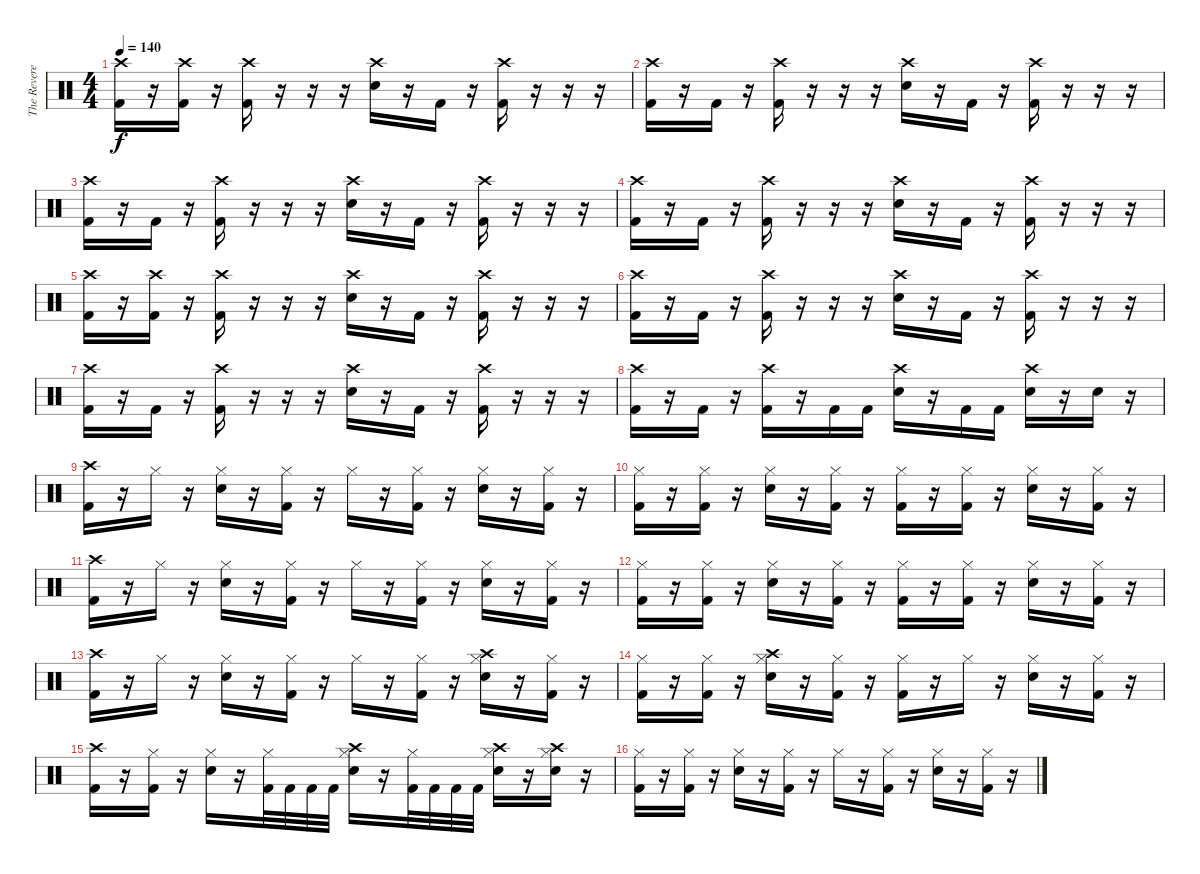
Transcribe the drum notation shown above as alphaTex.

\track ("The Reverend" "The Revere") {instrument percussion}
\staff {score}
\articulation defaults
\ts (4 4)
\tempo 140
\clef neutral
\ks c
("Crash high (hit)" "Kick (hit) 2").16{dy f} r.16 ("Crash high (hit)" "Kick (hit) 2").16 r.16 ("Crash high (hit)" "Kick (hit) 2").16 r.16 r.16 r.16 ("Crash high (hit)" "Electric Snare (hit)").16 r.16 "Kick (hit) 2".16 r.16 ("Crash high (hit)" "Kick (hit) 2").16 r.16 r.16 r.16 |
("Crash high (hit)" "Kick (hit) 2").16 r.16 "Kick (hit) 2".16 r.16 ("Crash high (hit)" "Kick (hit) 2").16 r.16 r.16 r.16 ("Crash high (hit)" "Electric Snare (hit)").16 r.16 "Kick (hit) 2".16 r.16 ("Crash high (hit)" "Kick (hit) 2").16 r.16 r.16 r.16 |
("Crash high (hit)" "Kick (hit) 2").16 r.16 "Kick (hit) 2".16 r.16 ("Crash high (hit)" "Kick (hit) 2").16 r.16 r.16 r.16 ("Crash high (hit)" "Electric Snare (hit)").16 r.16 "Kick (hit) 2".16 r.16 ("Crash high (hit)" "Kick (hit) 2").16 r.16 r.16 r.16 |
("Crash high (hit)" "Kick (hit) 2").16 r.16 "Kick (hit) 2".16 r.16 ("Crash high (hit)" "Kick (hit) 2").16 r.16 r.16 r.16 ("Crash high (hit)" "Electric Snare (hit)").16 r.16 "Kick (hit) 2".16 r.16 ("Crash high (hit)" "Kick (hit) 2").16 r.16 r.16 r.16 |
("Crash high (hit)" "Kick (hit) 2").16 r.16 ("Crash high (hit)" "Kick (hit) 2").16 r.16 ("Crash high (hit)" "Kick (hit) 2").16 r.16 r.16 r.16 ("Crash high (hit)" "Electric Snare (hit)").16 r.16 "Kick (hit) 2".16 r.16 ("Crash high (hit)" "Kick (hit) 2").16 r.16 r.16 r.16 |
("Crash high (hit)" "Kick (hit) 2").16 r.16 "Kick (hit) 2".16 r.16 ("Crash high (hit)" "Kick (hit) 2").16 r.16 r.16 r.16 ("Crash high (hit)" "Electric Snare (hit)").16 r.16 "Kick (hit) 2".16 r.16 ("Crash high (hit)" "Kick (hit) 2").16 r.16 r.16 r.16 |
("Crash high (hit)" "Kick (hit) 2").16 r.16 "Kick (hit) 2".16 r.16 ("Crash high (hit)" "Kick (hit) 2").16 r.16 r.16 r.16 ("Crash high (hit)" "Electric Snare (hit)").16 r.16 "Kick (hit) 2".16 r.16 ("Crash high (hit)" "Kick (hit) 2").16 r.16 r.16 r.16 |
("Crash high (hit)" "Kick (hit) 2").16 r.16 "Kick (hit) 2".16 r.16 ("Crash high (hit)" "Kick (hit) 2").16 r.16 "Kick (hit) 2".16 "Kick (hit) 2".16 ("Crash high (hit)" "Electric Snare (hit)").16 r.16 "Kick (hit) 2".16 "Kick (hit) 2".16 ("Crash high (hit)" "Electric Snare (hit)").16 r.16 "Electric Snare (hit)".16 r.16 |
("Crash high (hit)" "Kick (hit) 2").16 r.16 "Hi-Hat (closed)".16 r.16 ("Hi-Hat (closed)" "Electric Snare (hit)").16 r.16 ("Hi-Hat (closed)" "Kick (hit) 2").16 r.16 "Hi-Hat (closed)".16 r.16 ("Hi-Hat (closed)" "Kick (hit) 2").16 r.16 ("Hi-Hat (closed)" "Electric Snare (hit)").16 r.16 ("Hi-Hat (closed)" "Kick (hit) 2").16 r.16 |
("Hi-Hat (closed)" "Kick (hit) 2").16 r.16 ("Hi-Hat (closed)" "Kick (hit) 2").16 r.16 ("Hi-Hat (closed)" "Electric Snare (hit)").16 r.16 ("Hi-Hat (closed)" "Kick (hit) 2").16 r.16 ("Hi-Hat (closed)" "Kick (hit) 2").16 r.16 ("Hi-Hat (closed)" "Kick (hit) 2").16 r.16 ("Hi-Hat (closed)" "Electric Snare (hit)").16 r.16 ("Hi-Hat (closed)" "Kick (hit) 2").16 r.16 |
("Crash high (hit)" "Kick (hit) 2").16 r.16 "Hi-Hat (closed)".16 r.16 ("Hi-Hat (closed)" "Electric Snare (hit)").16 r.16 ("Hi-Hat (closed)" "Kick (hit) 2").16 r.16 "Hi-Hat (closed)".16 r.16 ("Hi-Hat (closed)" "Kick (hit) 2").16 r.16 ("Hi-Hat (closed)" "Electric Snare (hit)").16 r.16 ("Hi-Hat (closed)" "Kick (hit) 2").16 r.16 |
("Hi-Hat (closed)" "Kick (hit) 2").16 r.16 ("Hi-Hat (closed)" "Kick (hit) 2").16 r.16 ("Hi-Hat (closed)" "Electric Snare (hit)").16 r.16 ("Hi-Hat (closed)" "Kick (hit) 2").16 r.16 ("Hi-Hat (closed)" "Kick (hit) 2").16 r.16 ("Hi-Hat (closed)" "Kick (hit) 2").16 r.16 ("Hi-Hat (closed)" "Electric Snare (hit)").16 r.16 ("Hi-Hat (closed)" "Kick (hit) 2").16 r.16 |
("Crash high (hit)" "Kick (hit) 2").16 r.16 "Hi-Hat (closed)".16 r.16 ("Hi-Hat (closed)" "Electric Snare (hit)").16 r.16 ("Hi-Hat (closed)" "Kick (hit) 2").16 r.16 "Hi-Hat (closed)".16 r.16 ("Hi-Hat (closed)" "Kick (hit) 2").16 r.16 ("Crash high (hit)" "Hi-Hat (closed)" "Electric Snare (hit)").16 r.16 ("Hi-Hat (closed)" "Kick (hit) 2").16 r.16 |
("Hi-Hat (closed)" "Kick (hit) 2").16 r.16 ("Hi-Hat (closed)" "Kick (hit) 2").16 r.16 ("Crash high (hit)" "Hi-Hat (closed)" "Electric Snare (hit)").16 r.16 ("Hi-Hat (closed)" "Kick (hit) 2").16 r.16 ("Hi-Hat (closed)" "Kick (hit) 2").16 r.16 "Hi-Hat (closed)".16 r.16 ("Hi-Hat (closed)" "Electric Snare (hit)").16 r.16 ("Hi-Hat (closed)" "Kick (hit) 2").16 r.16 |
("Crash high (hit)" "Kick (hit) 2").16 r.16 ("Hi-Hat (closed)" "Kick (hit) 2").16 r.16 ("Hi-Hat (closed)" "Electric Snare (hit)").16 r.16 ("Hi-Hat (closed)" "Kick (hit) 2").32 "Kick (hit) 2".32 "Kick (hit) 2".32 "Kick (hit) 2".32 ("Crash high (hit)" "Hi-Hat (closed)" "Electric Snare (hit)").16 r.16 ("Hi-Hat (closed)" "Kick (hit) 2").32 "Kick (hit) 2".32 "Kick (hit) 2".32 "Kick (hit) 2".32 ("Crash high (hit)" "Hi-Hat (closed)" "Electric Snare (hit)").16 r.16 ("Crash high (hit)" "Hi-Hat (closed)" "Electric Snare (hit)").16 r.16 |
("Hi-Hat (closed)" "Kick (hit) 2").16 r.16 ("Hi-Hat (closed)" "Kick (hit) 2").16 r.16 ("Hi-Hat (closed)" "Electric Snare (hit)").16 r.16 ("Hi-Hat (closed)" "Kick (hit) 2").16 r.16 "Hi-Hat (closed)".16 r.16 ("Hi-Hat (closed)" "Kick (hit) 2").16 r.16 ("Hi-Hat (closed)" "Electric Snare (hit)").16 r.16 ("Hi-Hat (closed)" "Kick (hit) 2").16 r.16
